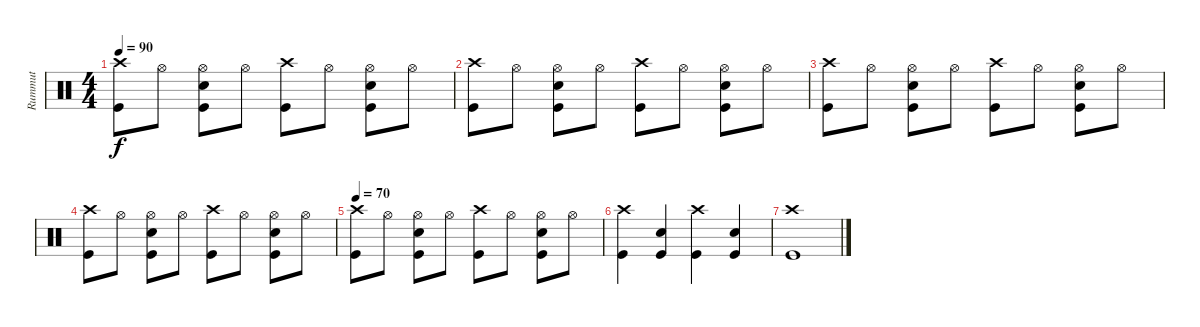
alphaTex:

\track ("Rummut" "Rummut") {instrument percussion}
\staff {score}
\articulation defaults
\ts (4 4)
\tempo 90
\clef neutral
\ks c
("Crash high (hit)" "Kick (hit)").8{dy f} "Hi-Hat (open)".8 ("Hi-Hat (open)" "Electric Snare (hit)" "Kick (hit)").8 "Hi-Hat (open)".8 ("Crash high (hit)" "Kick (hit)").8 "Hi-Hat (open)".8 ("Hi-Hat (open)" "Electric Snare (hit)" "Kick (hit)").8 "Hi-Hat (open)".8 |
("Crash high (hit)" "Kick (hit)").8 "Hi-Hat (open)".8 ("Hi-Hat (open)" "Electric Snare (hit)" "Kick (hit)").8 "Hi-Hat (open)".8 ("Crash high (hit)" "Kick (hit)").8 "Hi-Hat (open)".8 ("Hi-Hat (open)" "Electric Snare (hit)" "Kick (hit)").8 "Hi-Hat (open)".8 |
("Crash high (hit)" "Kick (hit)").8 "Hi-Hat (open)".8 ("Hi-Hat (open)" "Electric Snare (hit)" "Kick (hit)").8 "Hi-Hat (open)".8 ("Crash high (hit)" "Kick (hit)").8 "Hi-Hat (open)".8 ("Hi-Hat (open)" "Electric Snare (hit)" "Kick (hit)").8 "Hi-Hat (open)".8 |
("Crash high (hit)" "Kick (hit)").8 "Hi-Hat (open)".8 ("Hi-Hat (open)" "Electric Snare (hit)" "Kick (hit)").8 "Hi-Hat (open)".8 ("Crash high (hit)" "Kick (hit)").8 "Hi-Hat (open)".8 ("Hi-Hat (open)" "Electric Snare (hit)" "Kick (hit)").8 "Hi-Hat (open)".8 |
\tempo 70
("Crash high (hit)" "Kick (hit)").8 "Hi-Hat (open)".8 ("Hi-Hat (open)" "Electric Snare (hit)" "Kick (hit)").8 "Hi-Hat (open)".8 ("Crash high (hit)" "Kick (hit)").8 "Hi-Hat (open)".8 ("Hi-Hat (open)" "Electric Snare (hit)" "Kick (hit)").8 "Hi-Hat (open)".8 |
("Crash high (hit)" "Kick (hit)").4 ("Electric Snare (hit)" "Kick (hit)").4 ("Crash high (hit)" "Kick (hit)").4 ("Electric Snare (hit)" "Kick (hit)").4 |
("Crash high (hit)" "Kick (hit)").1{volume 0}
